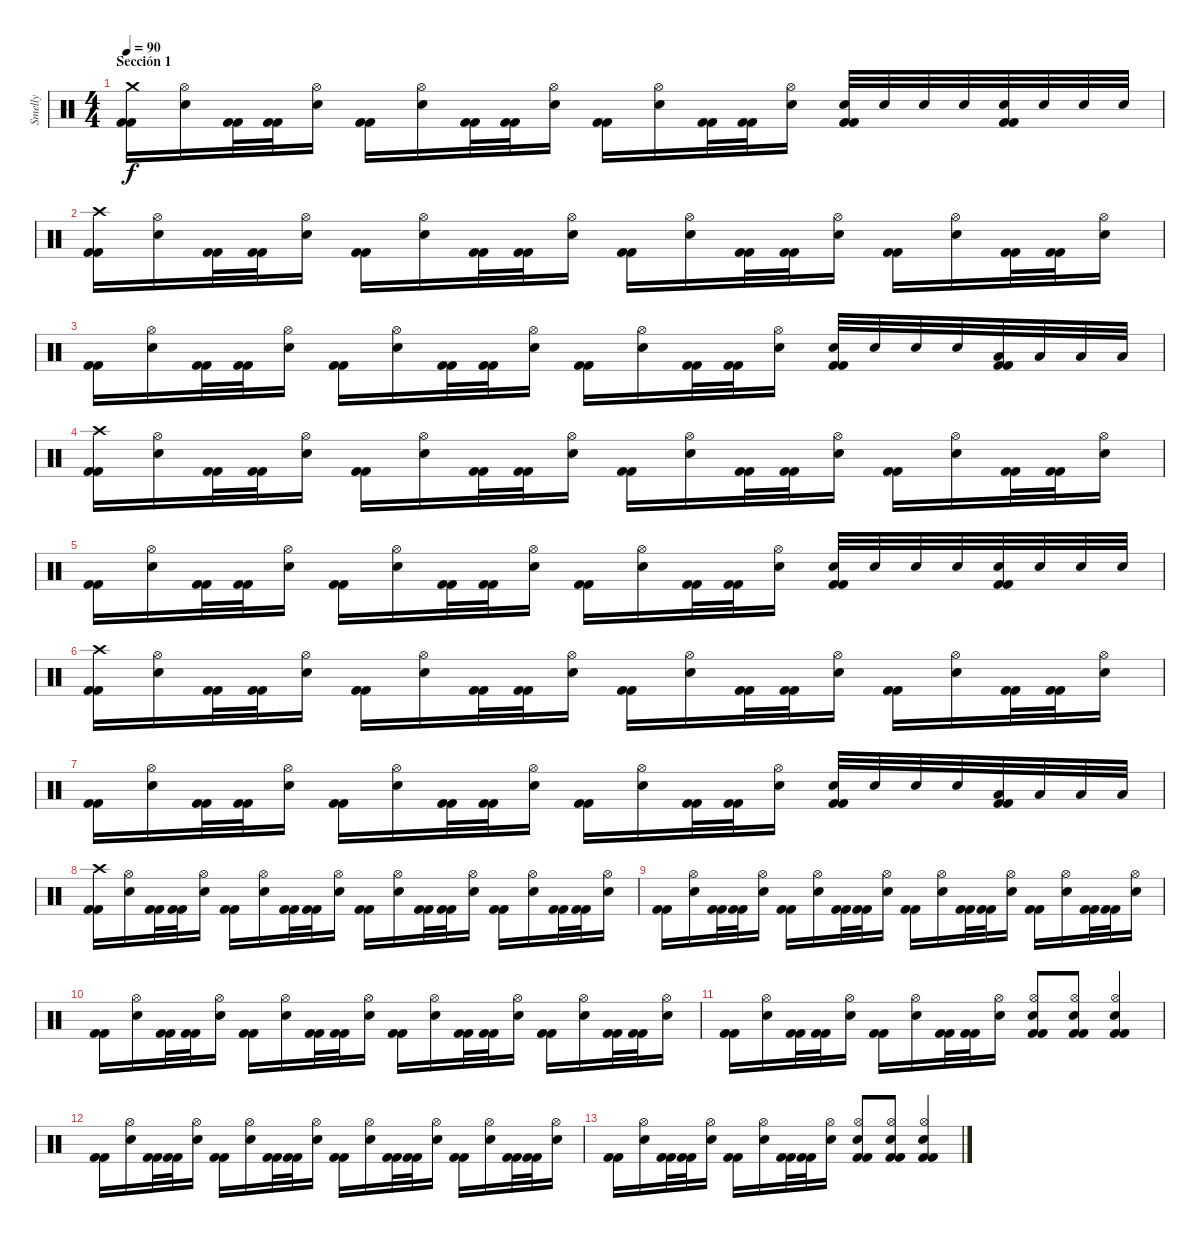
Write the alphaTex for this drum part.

\track ("Smelly" "Smelly") {instrument percussion}
\staff {score}
\articulation defaults
\ts (4 4)
\section ("" "Sección 1")
\tempo 90
\clef neutral
\ks c
("Crash medium (hit)" "Kick (hit) 2" "Kick (hit) 2").16{dy f} ("Hi-Hat (open)" "Electric Snare (hit)").16 ("Kick (hit) 2" "Kick (hit) 2").32 ("Kick (hit) 2" "Kick (hit) 2").32 ("Hi-Hat (open)" "Electric Snare (hit)").16 ("Kick (hit) 2" "Kick (hit) 2").16 ("Hi-Hat (open)" "Electric Snare (hit)").16 ("Kick (hit) 2" "Kick (hit) 2").32 ("Kick (hit) 2" "Kick (hit) 2").32 ("Hi-Hat (open)" "Electric Snare (hit)").16 ("Kick (hit) 2" "Kick (hit) 2").16 ("Hi-Hat (open)" "Electric Snare (hit)").16 ("Kick (hit) 2" "Kick (hit) 2").32 ("Kick (hit) 2" "Kick (hit) 2").32 ("Hi-Hat (open)" "Electric Snare (hit)").16 ("Electric Snare (hit)" "Kick (hit) 2" "Kick (hit) 2").32 "Electric Snare (hit)".32 "Electric Snare (hit)".32 "Electric Snare (hit)".32 ("Electric Snare (hit)" "Kick (hit) 2" "Kick (hit) 2").32 "Electric Snare (hit)".32 "Electric Snare (hit)".32 "Electric Snare (hit)".32 |
("Crash high (hit)" "Kick (hit) 2" "Kick (hit) 2").16 ("Hi-Hat (open)" "Electric Snare (hit)").16 ("Kick (hit) 2" "Kick (hit) 2").32 ("Kick (hit) 2" "Kick (hit) 2").32 ("Hi-Hat (open)" "Electric Snare (hit)").16 ("Kick (hit) 2" "Kick (hit) 2").16 ("Hi-Hat (open)" "Electric Snare (hit)").16 ("Kick (hit) 2" "Kick (hit) 2").32 ("Kick (hit) 2" "Kick (hit) 2").32 ("Hi-Hat (open)" "Electric Snare (hit)").16 ("Kick (hit) 2" "Kick (hit) 2").16 ("Hi-Hat (open)" "Electric Snare (hit)").16 ("Kick (hit) 2" "Kick (hit) 2").32 ("Kick (hit) 2" "Kick (hit) 2").32 ("Hi-Hat (open)" "Electric Snare (hit)").16 ("Kick (hit) 2" "Kick (hit) 2").16 ("Hi-Hat (open)" "Electric Snare (hit)").16 ("Kick (hit) 2" "Kick (hit) 2").32 ("Kick (hit) 2" "Kick (hit) 2").32 ("Hi-Hat (open)" "Electric Snare (hit)").16 |
("Kick (hit) 2" "Kick (hit) 2").16 ("Hi-Hat (open)" "Electric Snare (hit)").16 ("Kick (hit) 2" "Kick (hit) 2").32 ("Kick (hit) 2" "Kick (hit) 2").32 ("Hi-Hat (open)" "Electric Snare (hit)").16 ("Kick (hit) 2" "Kick (hit) 2").16 ("Hi-Hat (open)" "Electric Snare (hit)").16 ("Kick (hit) 2" "Kick (hit) 2").32 ("Kick (hit) 2" "Kick (hit) 2").32 ("Hi-Hat (open)" "Electric Snare (hit)").16 ("Kick (hit) 2" "Kick (hit) 2").16 ("Hi-Hat (open)" "Electric Snare (hit)").16 ("Kick (hit) 2" "Kick (hit) 2").32 ("Kick (hit) 2" "Kick (hit) 2").32 ("Hi-Hat (open)" "Electric Snare (hit)").16 ("Electric Snare (hit)" "Kick (hit) 2" "Kick (hit) 2").32 "Electric Snare (hit)".32 "Electric Snare (hit)".32 "Electric Snare (hit)".32 ("Low Floor Tom (hit)" "Kick (hit) 2" "Kick (hit) 2").32 "Low Floor Tom (hit)".32 "Low Floor Tom (hit)".32 "Low Floor Tom (hit)".32 |
("Crash high (hit)" "Kick (hit) 2" "Kick (hit) 2").16 ("Hi-Hat (open)" "Electric Snare (hit)").16 ("Kick (hit) 2" "Kick (hit) 2").32 ("Kick (hit) 2" "Kick (hit) 2").32 ("Hi-Hat (open)" "Electric Snare (hit)").16 ("Kick (hit) 2" "Kick (hit) 2").16 ("Hi-Hat (open)" "Electric Snare (hit)").16 ("Kick (hit) 2" "Kick (hit) 2").32 ("Kick (hit) 2" "Kick (hit) 2").32 ("Hi-Hat (open)" "Electric Snare (hit)").16 ("Kick (hit) 2" "Kick (hit) 2").16 ("Hi-Hat (open)" "Electric Snare (hit)").16 ("Kick (hit) 2" "Kick (hit) 2").32 ("Kick (hit) 2" "Kick (hit) 2").32 ("Hi-Hat (open)" "Electric Snare (hit)").16 ("Kick (hit) 2" "Kick (hit) 2").16 ("Hi-Hat (open)" "Electric Snare (hit)").16 ("Kick (hit) 2" "Kick (hit) 2").32 ("Kick (hit) 2" "Kick (hit) 2").32 ("Hi-Hat (open)" "Electric Snare (hit)").16 |
("Kick (hit) 2" "Kick (hit) 2").16 ("Hi-Hat (open)" "Electric Snare (hit)").16 ("Kick (hit) 2" "Kick (hit) 2").32 ("Kick (hit) 2" "Kick (hit) 2").32 ("Hi-Hat (open)" "Electric Snare (hit)").16 ("Kick (hit) 2" "Kick (hit) 2").16 ("Hi-Hat (open)" "Electric Snare (hit)").16 ("Kick (hit) 2" "Kick (hit) 2").32 ("Kick (hit) 2" "Kick (hit) 2").32 ("Hi-Hat (open)" "Electric Snare (hit)").16 ("Kick (hit) 2" "Kick (hit) 2").16 ("Hi-Hat (open)" "Electric Snare (hit)").16 ("Kick (hit) 2" "Kick (hit) 2").32 ("Kick (hit) 2" "Kick (hit) 2").32 ("Hi-Hat (open)" "Electric Snare (hit)").16 ("Electric Snare (hit)" "Kick (hit) 2" "Kick (hit) 2").32 "Electric Snare (hit)".32 "Electric Snare (hit)".32 "Electric Snare (hit)".32 ("Electric Snare (hit)" "Kick (hit) 2" "Kick (hit) 2").32 "Electric Snare (hit)".32 "Electric Snare (hit)".32 "Electric Snare (hit)".32 |
("Crash high (hit)" "Kick (hit) 2" "Kick (hit) 2").16 ("Hi-Hat (open)" "Electric Snare (hit)").16 ("Kick (hit) 2" "Kick (hit) 2").32 ("Kick (hit) 2" "Kick (hit) 2").32 ("Hi-Hat (open)" "Electric Snare (hit)").16 ("Kick (hit) 2" "Kick (hit) 2").16 ("Hi-Hat (open)" "Electric Snare (hit)").16 ("Kick (hit) 2" "Kick (hit) 2").32 ("Kick (hit) 2" "Kick (hit) 2").32 ("Hi-Hat (open)" "Electric Snare (hit)").16 ("Kick (hit) 2" "Kick (hit) 2").16 ("Hi-Hat (open)" "Electric Snare (hit)").16 ("Kick (hit) 2" "Kick (hit) 2").32 ("Kick (hit) 2" "Kick (hit) 2").32 ("Hi-Hat (open)" "Electric Snare (hit)").16 ("Kick (hit) 2" "Kick (hit) 2").16 ("Hi-Hat (open)" "Electric Snare (hit)").16 ("Kick (hit) 2" "Kick (hit) 2").32 ("Kick (hit) 2" "Kick (hit) 2").32 ("Hi-Hat (open)" "Electric Snare (hit)").16 |
("Kick (hit) 2" "Kick (hit) 2").16 ("Hi-Hat (open)" "Electric Snare (hit)").16 ("Kick (hit) 2" "Kick (hit) 2").32 ("Kick (hit) 2" "Kick (hit) 2").32 ("Hi-Hat (open)" "Electric Snare (hit)").16 ("Kick (hit) 2" "Kick (hit) 2").16 ("Hi-Hat (open)" "Electric Snare (hit)").16 ("Kick (hit) 2" "Kick (hit) 2").32 ("Kick (hit) 2" "Kick (hit) 2").32 ("Hi-Hat (open)" "Electric Snare (hit)").16 ("Kick (hit) 2" "Kick (hit) 2").16 ("Hi-Hat (open)" "Electric Snare (hit)").16 ("Kick (hit) 2" "Kick (hit) 2").32 ("Kick (hit) 2" "Kick (hit) 2").32 ("Hi-Hat (open)" "Electric Snare (hit)").16 ("Electric Snare (hit)" "Kick (hit) 2" "Kick (hit) 2").32 "Electric Snare (hit)".32 "Electric Snare (hit)".32 "Electric Snare (hit)".32 ("Low Floor Tom (hit)" "Kick (hit) 2" "Kick (hit) 2").32 "Low Floor Tom (hit)".32 "Low Floor Tom (hit)".32 "Low Floor Tom (hit)".32 |
("Crash high (hit)" "Kick (hit) 2" "Kick (hit) 2").16 ("Hi-Hat (open)" "Electric Snare (hit)").16 ("Kick (hit) 2" "Kick (hit) 2").32 ("Kick (hit) 2" "Kick (hit) 2").32 ("Hi-Hat (open)" "Electric Snare (hit)").16 ("Kick (hit) 2" "Kick (hit) 2").16 ("Hi-Hat (open)" "Electric Snare (hit)").16 ("Kick (hit) 2" "Kick (hit) 2").32 ("Kick (hit) 2" "Kick (hit) 2").32 ("Hi-Hat (open)" "Electric Snare (hit)").16 ("Kick (hit) 2" "Kick (hit) 2").16 ("Hi-Hat (open)" "Electric Snare (hit)").16 ("Kick (hit) 2" "Kick (hit) 2").32 ("Kick (hit) 2" "Kick (hit) 2").32 ("Hi-Hat (open)" "Electric Snare (hit)").16 ("Kick (hit) 2" "Kick (hit) 2").16 ("Hi-Hat (open)" "Electric Snare (hit)").16 ("Kick (hit) 2" "Kick (hit) 2").32 ("Kick (hit) 2" "Kick (hit) 2").32 ("Hi-Hat (open)" "Electric Snare (hit)").16 |
("Kick (hit) 2" "Kick (hit) 2").16 ("Hi-Hat (open)" "Electric Snare (hit)").16 ("Kick (hit) 2" "Kick (hit) 2").32 ("Kick (hit) 2" "Kick (hit) 2").32 ("Hi-Hat (open)" "Electric Snare (hit)").16 ("Kick (hit) 2" "Kick (hit) 2").16 ("Hi-Hat (open)" "Electric Snare (hit)").16 ("Kick (hit) 2" "Kick (hit) 2").32 ("Kick (hit) 2" "Kick (hit) 2").32 ("Hi-Hat (open)" "Electric Snare (hit)").16 ("Kick (hit) 2" "Kick (hit) 2").16 ("Hi-Hat (open)" "Electric Snare (hit)").16 ("Kick (hit) 2" "Kick (hit) 2").32 ("Kick (hit) 2" "Kick (hit) 2").32 ("Hi-Hat (open)" "Electric Snare (hit)").16 ("Kick (hit) 2" "Kick (hit) 2").16 ("Hi-Hat (open)" "Electric Snare (hit)").16 ("Kick (hit) 2" "Kick (hit) 2").32 ("Kick (hit) 2" "Kick (hit) 2").32 ("Hi-Hat (open)" "Electric Snare (hit)").16 |
("Kick (hit) 2" "Kick (hit) 2").16 ("Hi-Hat (open)" "Electric Snare (hit)").16 ("Kick (hit) 2" "Kick (hit) 2").32 ("Kick (hit) 2" "Kick (hit) 2").32 ("Hi-Hat (open)" "Electric Snare (hit)").16 ("Kick (hit) 2" "Kick (hit) 2").16 ("Hi-Hat (open)" "Electric Snare (hit)").16 ("Kick (hit) 2" "Kick (hit) 2").32 ("Kick (hit) 2" "Kick (hit) 2").32 ("Hi-Hat (open)" "Electric Snare (hit)").16 ("Kick (hit) 2" "Kick (hit) 2").16 ("Hi-Hat (open)" "Electric Snare (hit)").16 ("Kick (hit) 2" "Kick (hit) 2").32 ("Kick (hit) 2" "Kick (hit) 2").32 ("Hi-Hat (open)" "Electric Snare (hit)").16 ("Kick (hit) 2" "Kick (hit) 2").16 ("Hi-Hat (open)" "Electric Snare (hit)").16 ("Kick (hit) 2" "Kick (hit) 2").32 ("Kick (hit) 2" "Kick (hit) 2").32 ("Hi-Hat (open)" "Electric Snare (hit)").16 |
("Kick (hit) 2" "Kick (hit) 2").16 ("Hi-Hat (open)" "Electric Snare (hit)").16 ("Kick (hit) 2" "Kick (hit) 2").32 ("Kick (hit) 2" "Kick (hit) 2").32 ("Hi-Hat (open)" "Electric Snare (hit)").16 ("Kick (hit) 2" "Kick (hit) 2").16 ("Hi-Hat (open)" "Electric Snare (hit)").16 ("Kick (hit) 2" "Kick (hit) 2").32 ("Kick (hit) 2" "Kick (hit) 2").32 ("Hi-Hat (open)" "Electric Snare (hit)").16 ("Hi-Hat (open)" "Electric Snare (hit)" "Kick (hit) 2" "Kick (hit) 2").8 ("Hi-Hat (open)" "Electric Snare (hit)" "Kick (hit) 2" "Kick (hit) 2").8 ("Hi-Hat (open)" "Electric Snare (hit)" "Kick (hit) 2" "Kick (hit) 2").4 |
("Kick (hit) 2" "Kick (hit) 2").16 ("Hi-Hat (open)" "Electric Snare (hit)").16 ("Kick (hit) 2" "Kick (hit) 2").32 ("Kick (hit) 2" "Kick (hit) 2").32 ("Hi-Hat (open)" "Electric Snare (hit)").16 ("Kick (hit) 2" "Kick (hit) 2").16 ("Hi-Hat (open)" "Electric Snare (hit)").16 ("Kick (hit) 2" "Kick (hit) 2").32 ("Kick (hit) 2" "Kick (hit) 2").32 ("Hi-Hat (open)" "Electric Snare (hit)").16 ("Kick (hit) 2" "Kick (hit) 2").16 ("Hi-Hat (open)" "Electric Snare (hit)").16 ("Kick (hit) 2" "Kick (hit) 2").32 ("Kick (hit) 2" "Kick (hit) 2").32 ("Hi-Hat (open)" "Electric Snare (hit)").16 ("Kick (hit) 2" "Kick (hit) 2").16 ("Hi-Hat (open)" "Electric Snare (hit)").16 ("Kick (hit) 2" "Kick (hit) 2").32 ("Kick (hit) 2" "Kick (hit) 2").32 ("Hi-Hat (open)" "Electric Snare (hit)").16 |
("Kick (hit) 2" "Kick (hit) 2").16 ("Hi-Hat (open)" "Electric Snare (hit)").16 ("Kick (hit) 2" "Kick (hit) 2").32 ("Kick (hit) 2" "Kick (hit) 2").32 ("Hi-Hat (open)" "Electric Snare (hit)").16 ("Kick (hit) 2" "Kick (hit) 2").16 ("Hi-Hat (open)" "Electric Snare (hit)").16 ("Kick (hit) 2" "Kick (hit) 2").32 ("Kick (hit) 2" "Kick (hit) 2").32 ("Hi-Hat (open)" "Electric Snare (hit)").16 ("Hi-Hat (open)" "Electric Snare (hit)" "Kick (hit) 2" "Kick (hit) 2").8 ("Hi-Hat (open)" "Electric Snare (hit)" "Kick (hit) 2" "Kick (hit) 2").8 ("Hi-Hat (open)" "Electric Snare (hit)" "Kick (hit) 2" "Kick (hit) 2").4
